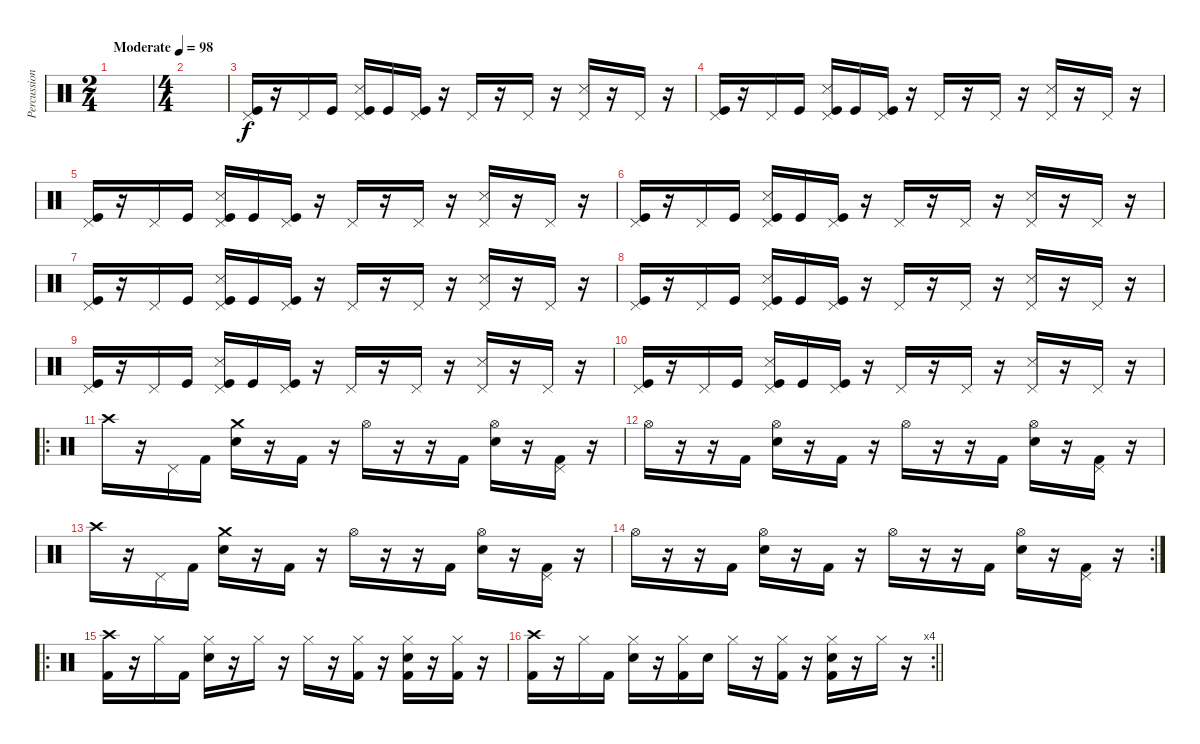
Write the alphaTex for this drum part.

\track ("Percussion" "Percussion") {instrument percussion}
\staff {score}
\articulation defaults
\ts (2 4)
\tempo (98 "Moderate")
\clef neutral
\ks c
|
\ts (4 4)
|
("Pedal Hi-Hat (hit)" "Kick (hit)").16 r.16 "Pedal Hi-Hat (hit)".16 "Kick (hit)".16 ("Pedal Hi-Hat (hit)" "Snare (side stick) 3" "Kick (hit)").16 "Kick (hit)".16 ("Pedal Hi-Hat (hit)" "Kick (hit)").16 r.16 "Pedal Hi-Hat (hit)".16 r.16 "Pedal Hi-Hat (hit)".16 r.16 ("Pedal Hi-Hat (hit)" "Snare (side stick) 3").16 r.16 "Pedal Hi-Hat (hit)".16 r.16 |
("Pedal Hi-Hat (hit)" "Kick (hit)").16 r.16 "Pedal Hi-Hat (hit)".16 "Kick (hit)".16 ("Pedal Hi-Hat (hit)" "Snare (side stick) 3" "Kick (hit)").16 "Kick (hit)".16 ("Pedal Hi-Hat (hit)" "Kick (hit)").16 r.16 "Pedal Hi-Hat (hit)".16 r.16 "Pedal Hi-Hat (hit)".16 r.16 ("Pedal Hi-Hat (hit)" "Snare (side stick) 3").16 r.16 "Pedal Hi-Hat (hit)".16 r.16 |
("Pedal Hi-Hat (hit)" "Kick (hit)").16 r.16 "Pedal Hi-Hat (hit)".16 "Kick (hit)".16 ("Pedal Hi-Hat (hit)" "Snare (side stick) 3" "Kick (hit)").16 "Kick (hit)".16 ("Pedal Hi-Hat (hit)" "Kick (hit)").16 r.16 "Pedal Hi-Hat (hit)".16 r.16 "Pedal Hi-Hat (hit)".16 r.16 ("Pedal Hi-Hat (hit)" "Snare (side stick) 3").16 r.16 "Pedal Hi-Hat (hit)".16 r.16 |
("Pedal Hi-Hat (hit)" "Kick (hit)").16 r.16 "Pedal Hi-Hat (hit)".16 "Kick (hit)".16 ("Pedal Hi-Hat (hit)" "Snare (side stick) 3" "Kick (hit)").16 "Kick (hit)".16 ("Pedal Hi-Hat (hit)" "Kick (hit)").16 r.16 "Pedal Hi-Hat (hit)".16 r.16 "Pedal Hi-Hat (hit)".16 r.16 ("Pedal Hi-Hat (hit)" "Snare (side stick) 3").16 r.16 "Pedal Hi-Hat (hit)".16 r.16 |
("Pedal Hi-Hat (hit)" "Kick (hit)").16 r.16 "Pedal Hi-Hat (hit)".16 "Kick (hit)".16 ("Pedal Hi-Hat (hit)" "Snare (side stick) 3" "Kick (hit)").16 "Kick (hit)".16 ("Pedal Hi-Hat (hit)" "Kick (hit)").16 r.16 "Pedal Hi-Hat (hit)".16 r.16 "Pedal Hi-Hat (hit)".16 r.16 ("Pedal Hi-Hat (hit)" "Snare (side stick) 3").16 r.16 "Pedal Hi-Hat (hit)".16 r.16 |
("Pedal Hi-Hat (hit)" "Kick (hit)").16 r.16 "Pedal Hi-Hat (hit)".16 "Kick (hit)".16 ("Pedal Hi-Hat (hit)" "Snare (side stick) 3" "Kick (hit)").16 "Kick (hit)".16 ("Pedal Hi-Hat (hit)" "Kick (hit)").16 r.16 "Pedal Hi-Hat (hit)".16 r.16 "Pedal Hi-Hat (hit)".16 r.16 ("Pedal Hi-Hat (hit)" "Snare (side stick) 3").16 r.16 "Pedal Hi-Hat (hit)".16 r.16 |
("Pedal Hi-Hat (hit)" "Kick (hit)").16 r.16 "Pedal Hi-Hat (hit)".16 "Kick (hit)".16 ("Pedal Hi-Hat (hit)" "Snare (side stick) 3" "Kick (hit)").16 "Kick (hit)".16 ("Pedal Hi-Hat (hit)" "Kick (hit)").16 r.16 "Pedal Hi-Hat (hit)".16 r.16 "Pedal Hi-Hat (hit)".16 r.16 ("Pedal Hi-Hat (hit)" "Snare (side stick) 3").16 r.16 "Pedal Hi-Hat (hit)".16 r.16 |
("Pedal Hi-Hat (hit)" "Kick (hit)").16 r.16 "Pedal Hi-Hat (hit)".16 "Kick (hit)".16 ("Pedal Hi-Hat (hit)" "Snare (side stick) 3" "Kick (hit)").16 "Kick (hit)".16 ("Pedal Hi-Hat (hit)" "Kick (hit)").16 r.16 "Pedal Hi-Hat (hit)".16 r.16 "Pedal Hi-Hat (hit)".16 r.16 ("Pedal Hi-Hat (hit)" "Snare (side stick) 3").16 r.16 "Pedal Hi-Hat (hit)".16 r.16 |
\ro "Crash high (hit)".16
r.16 "Pedal Hi-Hat (hit)".16 "Kick (hit) 2".16 ("Crash medium (hit)" "Snare (hit) 2").16 r.16 "Kick (hit) 2".16 r.16 "Hi-Hat (open)".16 r.16 r.16 "Kick (hit) 2".16 ("Hi-Hat (open)" "Snare (hit) 2").16 r.16 ("Pedal Hi-Hat (hit)" "Kick (hit) 2").16 r.16 |
"Hi-Hat (open)".16 r.16 r.16 "Kick (hit) 2".16 ("Hi-Hat (open)" "Snare (hit) 2").16 r.16 "Kick (hit) 2".16 r.16 "Hi-Hat (open)".16 r.16 r.16 "Kick (hit) 2".16 ("Hi-Hat (open)" "Snare (hit) 2").16 r.16 ("Pedal Hi-Hat (hit)" "Kick (hit) 2").16 r.16 |
"Crash high (hit)".16 r.16 "Pedal Hi-Hat (hit)".16 "Kick (hit) 2".16 ("Crash medium (hit)" "Snare (hit) 2").16 r.16 "Kick (hit) 2".16 r.16 "Hi-Hat (open)".16 r.16 r.16 "Kick (hit) 2".16 ("Hi-Hat (open)" "Snare (hit) 2").16 r.16 ("Pedal Hi-Hat (hit)" "Kick (hit) 2").16 r.16 |
\rc 2 "Hi-Hat (open)".16
r.16 r.16 "Kick (hit) 2".16 ("Hi-Hat (open)" "Snare (hit) 2").16 r.16 "Kick (hit) 2".16 r.16 "Hi-Hat (open)".16 r.16 r.16 "Kick (hit) 2".16 ("Hi-Hat (open)" "Snare (hit) 2").16 r.16 ("Pedal Hi-Hat (hit)" "Kick (hit) 2").16 r.16 |
\ro
("Crash high (hit)" "Kick (hit) 2").16 r.16 "Hi-Hat (closed)".16 "Kick (hit) 2".16 ("Hi-Hat (closed)" "Snare (hit) 2").16 r.16 "Hi-Hat (closed)".16 r.16 "Hi-Hat (closed)".16 r.16 ("Hi-Hat (closed)" "Kick (hit) 2").16 r.16 ("Hi-Hat (closed)" "Snare (hit) 2" "Kick (hit) 2").16 r.16 ("Hi-Hat (closed)" "Kick (hit) 2").16 r.16 |
\rc 4
\barLineRight lightlight
("Crash high (hit)" "Kick (hit) 2").16 r.16 "Hi-Hat (closed)".16 "Kick (hit) 2".16 ("Hi-Hat (closed)" "Snare (hit) 2").16 r.16 ("Hi-Hat (closed)" "Kick (hit) 2").16 "Snare (hit) 2".16 "Hi-Hat (closed)".16 r.16 ("Hi-Hat (closed)" "Kick (hit) 2").16 r.16 ("Hi-Hat (closed)" "Snare (hit) 2" "Kick (hit) 2").16 r.16 "Hi-Hat (closed)".16 r.16
